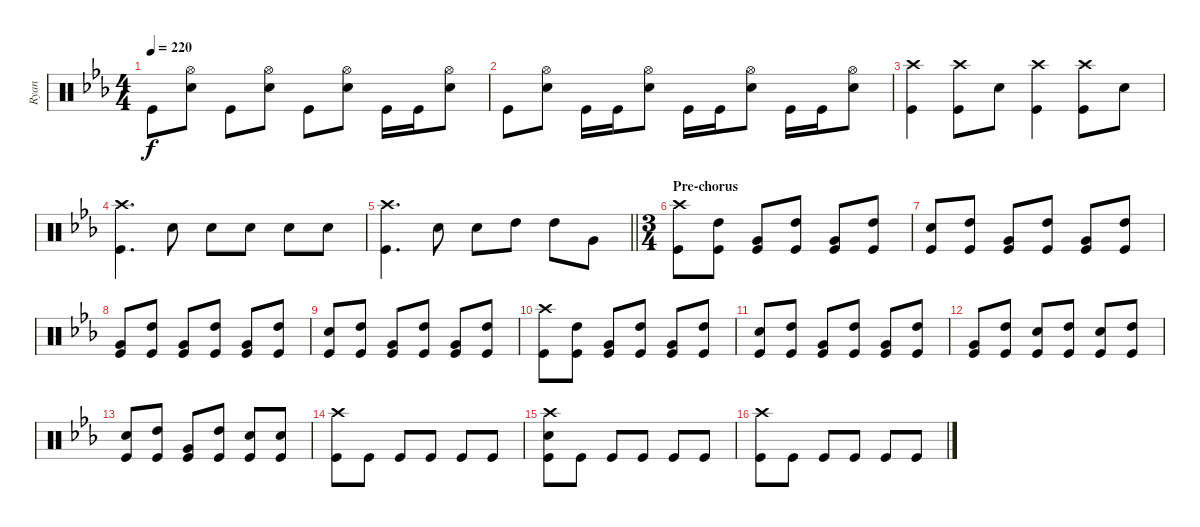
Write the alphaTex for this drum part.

\track ("Ryan" "Ryan") {instrument percussion}
\staff {score}
\articulation defaults
\ts (4 4)
\tempo 220
\clef neutral
\ks cminor "Kick (hit)".8{dy f}
("Snare (hit) 2" "Hi-Hat (open)").8 "Kick (hit)".8 ("Snare (hit) 2" "Hi-Hat (open)").8 "Kick (hit)".8 ("Snare (hit) 2" "Hi-Hat (open)").8 "Kick (hit)".16 "Kick (hit)".16 ("Snare (hit) 2" "Hi-Hat (open)").8 |
"Kick (hit)".8 ("Snare (hit) 2" "Hi-Hat (open)").8 "Kick (hit)".16 "Kick (hit)".16 ("Snare (hit) 2" "Hi-Hat (open)").8 "Kick (hit)".16 "Kick (hit)".16 ("Snare (hit) 2" "Hi-Hat (open)").8 "Kick (hit)".16 "Kick (hit)".16 ("Snare (hit) 2" "Hi-Hat (open)").8 |
("Kick (hit)" "Crash high (hit)").4 ("Crash high (hit)" "Kick (hit)").8 "Snare (hit) 2".8 ("Kick (hit)" "Crash high (hit)").4 ("Crash high (hit)" "Kick (hit)").8 "Snare (hit) 2".8 |
("Kick (hit)" "Crash high (hit)").4{d} "Snare (hit) 2".8 "Snare (hit) 2".8 "Snare (hit) 2".8 "Snare (hit) 2".8 "Snare (hit) 2".8 |
\barLineRight lightlight
("Kick (hit)" "Crash high (hit)").4{d} "Snare (hit) 2".8 "Snare (hit) 2".8 "High Tom (hit)".8 "High Tom (hit)".8 "Very Low Tom (hit)".8 |
\ts (3 4)
\section ("" "Pre-chorus")
("Crash high (hit)" "Kick (hit)").8 ("High Tom (hit)" "Kick (hit)").8 ("Very Low Tom (hit)" "Kick (hit)").8 ("High Tom (hit)" "Kick (hit)").8 ("Very Low Tom (hit)" "Kick (hit)").8 ("High Tom (hit)" "Kick (hit)").8 |
("Snare (hit) 2" "Kick (hit)").8 ("High Tom (hit)" "Kick (hit)").8 ("Very Low Tom (hit)" "Kick (hit)").8 ("High Tom (hit)" "Kick (hit)").8 ("Very Low Tom (hit)" "Kick (hit)").8 ("High Tom (hit)" "Kick (hit)").8 |
("Very Low Tom (hit)" "Kick (hit)").8 ("High Tom (hit)" "Kick (hit)").8 ("Very Low Tom (hit)" "Kick (hit)").8 ("High Tom (hit)" "Kick (hit)").8 ("Very Low Tom (hit)" "Kick (hit)").8 ("High Tom (hit)" "Kick (hit)").8 |
("Snare (hit) 2" "Kick (hit)").8 ("High Tom (hit)" "Kick (hit)").8 ("Very Low Tom (hit)" "Kick (hit)").8 ("High Tom (hit)" "Kick (hit)").8 ("Very Low Tom (hit)" "Kick (hit)").8 ("High Tom (hit)" "Kick (hit)").8 |
("Crash high (hit)" "Kick (hit)").8 ("High Tom (hit)" "Kick (hit)").8 ("Very Low Tom (hit)" "Kick (hit)").8 ("High Tom (hit)" "Kick (hit)").8 ("Very Low Tom (hit)" "Kick (hit)").8 ("High Tom (hit)" "Kick (hit)").8 |
("Snare (hit) 2" "Kick (hit)").8 ("High Tom (hit)" "Kick (hit)").8 ("Very Low Tom (hit)" "Kick (hit)").8 ("High Tom (hit)" "Kick (hit)").8 ("Very Low Tom (hit)" "Kick (hit)").8 ("High Tom (hit)" "Kick (hit)").8 |
("Very Low Tom (hit)" "Kick (hit)").8 ("High Tom (hit)" "Kick (hit)").8 ("Snare (hit) 2" "Kick (hit)").8 ("High Tom (hit)" "Kick (hit)").8 ("Snare (hit) 2" "Kick (hit)").8 ("High Tom (hit)" "Kick (hit)").8 |
("Kick (hit)" "Snare (hit) 2").8 ("High Tom (hit)" "Kick (hit)").8 ("Kick (hit)" "Very Low Tom (hit)").8 ("Kick (hit)" "High Tom (hit)").8 ("Kick (hit)" "Snare (hit) 2").8 ("Kick (hit)" "Snare (hit) 2").8 |
("Kick (hit)" "Crash high (hit)").8 "Kick (hit)".8 "Kick (hit)".8 "Kick (hit)".8 "Kick (hit)".8 "Kick (hit)".8 |
("Crash high (hit)" "Snare (hit) 2" "Kick (hit)").8 "Kick (hit)".8 "Kick (hit)".8 "Kick (hit)".8 "Kick (hit)".8 "Kick (hit)".8 |
("Kick (hit)" "Crash high (hit)").8 "Kick (hit)".8 "Kick (hit)".8 "Kick (hit)".8 "Kick (hit)".8 "Kick (hit)".8
